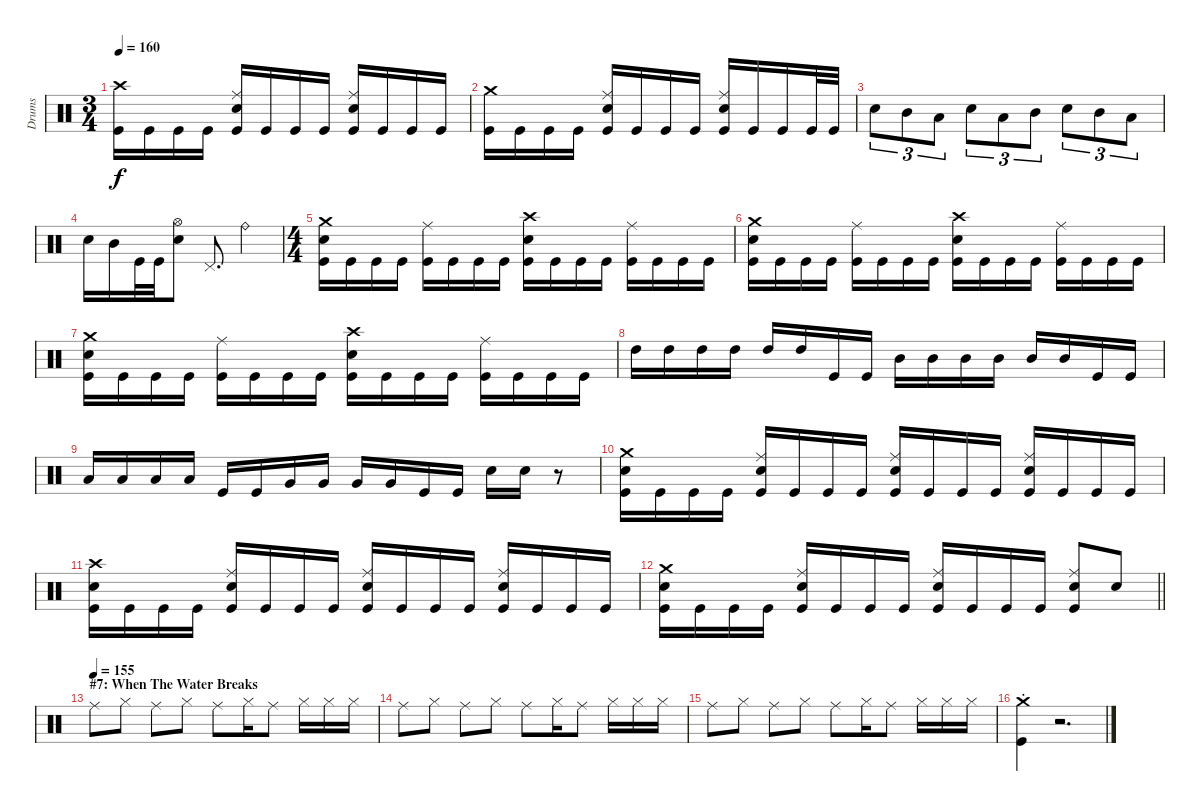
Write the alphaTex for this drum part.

\track ("Drums" "Drums") {instrument percussion}
\staff {score}
\articulation defaults
\ts (3 4)
\tempo 160
\clef neutral
\ks c
("Crash high (hit)" "Kick (hit)").16{dy f} "Kick (hit)".16 "Kick (hit)".16 "Kick (hit)".16 ("Ride (middle)" "Snare (hit) 2" "Kick (hit)").16 "Kick (hit)".16 "Kick (hit)".16 "Kick (hit)".16 ("Ride (middle)" "Snare (hit) 2" "Kick (hit)").16 "Kick (hit)".16 "Kick (hit)".16 "Kick (hit)".16 |
("Crash medium (hit)" "Kick (hit)").16 "Kick (hit)".16 "Kick (hit)".16 "Kick (hit)".16 ("Ride (middle)" "Snare (hit) 2" "Kick (hit)").16 "Kick (hit)".16 "Kick (hit)".16 "Kick (hit)".16 ("Ride (middle)" "Snare (hit) 2" "Kick (hit)").16 "Kick (hit)".16 "Kick (hit)".16 "Kick (hit)".32 "Kick (hit)".32 |
"Snare (hit) 2".8{tu (3 2)} "Mid Tom (hit)".8{tu (3 2)} "Low Tom (hit)".8{tu (3 2)} "Snare (hit) 2".8{tu (3 2)} "Low Tom (hit)".8{tu (3 2)} "Mid Tom (hit)".8{tu (3 2)} "Snare (hit) 2".8{tu (3 2)} "Mid Tom (hit)".8{tu (3 2)} "Low Tom (hit)".8{tu (3 2)} |
"Snare (hit) 2".16 "Mid Tom (hit)".16 "Kick (hit)".32 "Kick (hit)".32 ("Hi-Hat (open)" "Snare (hit) 2").8 "Pedal Hi-Hat (hit)".8{d} "Ride (bell)".4 |
\ts (4 4)
("Crash medium (hit)" "Snare (hit) 2" "Kick (hit)").16 "Kick (hit)".16 "Kick (hit)".16 "Kick (hit)".16 ("Ride (middle)" "Kick (hit)").16 "Kick (hit)".16 "Kick (hit)".16 "Kick (hit)".16 ("Crash high (hit)" "Snare (hit) 2" "Kick (hit)").16 "Kick (hit)".16 "Kick (hit)".16 "Kick (hit)".16 ("Ride (middle)" "Kick (hit)").16 "Kick (hit)".16 "Kick (hit)".16 "Kick (hit)".16 |
("Crash medium (hit)" "Snare (hit) 2" "Kick (hit)").16 "Kick (hit)".16 "Kick (hit)".16 "Kick (hit)".16 ("Ride (middle)" "Kick (hit)").16 "Kick (hit)".16 "Kick (hit)".16 "Kick (hit)".16 ("Crash high (hit)" "Snare (hit) 2" "Kick (hit)").16 "Kick (hit)".16 "Kick (hit)".16 "Kick (hit)".16 ("Ride (middle)" "Kick (hit)").16 "Kick (hit)".16 "Kick (hit)".16 "Kick (hit)".16 |
("Crash medium (hit)" "Snare (hit) 2" "Kick (hit)").16 "Kick (hit)".16 "Kick (hit)".16 "Kick (hit)".16 ("Ride (middle)" "Kick (hit)").16 "Kick (hit)".16 "Kick (hit)".16 "Kick (hit)".16 ("Crash high (hit)" "Snare (hit) 2" "Kick (hit)").16 "Kick (hit)".16 "Kick (hit)".16 "Kick (hit)".16 ("Ride (middle)" "Kick (hit)").16 "Kick (hit)".16 "Kick (hit)".16 "Kick (hit)".16 |
"High Tom (hit)".16 "High Tom (hit)".16 "High Tom (hit)".16 "High Tom (hit)".16 "High Tom (hit)".16 "High Tom (hit)".16 "Kick (hit)".16 "Kick (hit)".16 "Mid Tom (hit)".16 "Mid Tom (hit)".16 "Mid Tom (hit)".16 "Mid Tom (hit)".16 "Mid Tom (hit)".16 "Mid Tom (hit)".16 "Kick (hit)".16 "Kick (hit)".16 |
"Low Tom (hit)".16 "Low Tom (hit)".16 "Low Tom (hit)".16 "Low Tom (hit)".16 "Kick (hit)".16 "Kick (hit)".16 "Very Low Tom (hit)".16 "Very Low Tom (hit)".16 "Very Low Tom (hit)".16 "Very Low Tom (hit)".16 "Kick (hit)".16 "Kick (hit)".16 "Snare (hit) 2".16 "Snare (hit) 2".16 r.8 |
("Crash medium (hit)" "Snare (hit) 2" "Kick (hit)").16 "Kick (hit)".16 "Kick (hit)".16 "Kick (hit)".16 ("Ride (middle)" "Snare (hit) 2" "Kick (hit)").16 "Kick (hit)".16 "Kick (hit)".16 "Kick (hit)".16 ("Ride (middle)" "Snare (hit) 2" "Kick (hit)").16 "Kick (hit)".16 "Kick (hit)".16 "Kick (hit)".16 ("Ride (middle)" "Snare (hit) 2" "Kick (hit)").16 "Kick (hit)".16 "Kick (hit)".16 "Kick (hit)".16 |
("Crash high (hit)" "Snare (hit) 2" "Kick (hit)").16 "Kick (hit)".16 "Kick (hit)".16 "Kick (hit)".16 ("Ride (middle)" "Snare (hit) 2" "Kick (hit)").16 "Kick (hit)".16 "Kick (hit)".16 "Kick (hit)".16 ("Ride (middle)" "Snare (hit) 2" "Kick (hit)").16 "Kick (hit)".16 "Kick (hit)".16 "Kick (hit)".16 ("Ride (middle)" "Snare (hit) 2" "Kick (hit)").16 "Kick (hit)".16 "Kick (hit)".16 "Kick (hit)".16 |
\barLineRight lightlight
("Crash medium (hit)" "Snare (hit) 2" "Kick (hit)").16 "Kick (hit)".16 "Kick (hit)".16 "Kick (hit)".16 ("Ride (middle)" "Snare (hit) 2" "Kick (hit)").16 "Kick (hit)".16 "Kick (hit)".16 "Kick (hit)".16 ("Ride (middle)" "Snare (hit) 2" "Kick (hit)").16 "Kick (hit)".16 "Kick (hit)".16 "Kick (hit)".16 ("Ride (middle)" "Snare (hit) 2" "Kick (hit)").8 "Snare (hit) 2".8 |
\section ("" "#7: When The Water Breaks")
\tempo (155)
"Ride (middle)".8 "Hi-Hat (closed)".8 "Ride (middle)".8 "Hi-Hat (closed)".8 "Ride (middle)".8 "Hi-Hat (closed)".16 "Ride (middle)".8 "Hi-Hat (closed)".16 "Hi-Hat (closed)".16 "Hi-Hat (closed)".16 |
"Ride (middle)".8 "Hi-Hat (closed)".8 "Ride (middle)".8 "Hi-Hat (closed)".8 "Ride (middle)".8 "Hi-Hat (closed)".16 "Ride (middle)".8 "Hi-Hat (closed)".16 "Hi-Hat (closed)".16 "Hi-Hat (closed)".16 |
"Ride (middle)".8 "Hi-Hat (closed)".8 "Ride (middle)".8 "Hi-Hat (closed)".8 "Ride (middle)".8 "Hi-Hat (closed)".16 "Ride (middle)".8 "Hi-Hat (closed)".16 "Hi-Hat (closed)".16 "Hi-Hat (closed)".16 |
("Crash medium (hit)"{st} "Kick (hit)").4 r.2{d}
